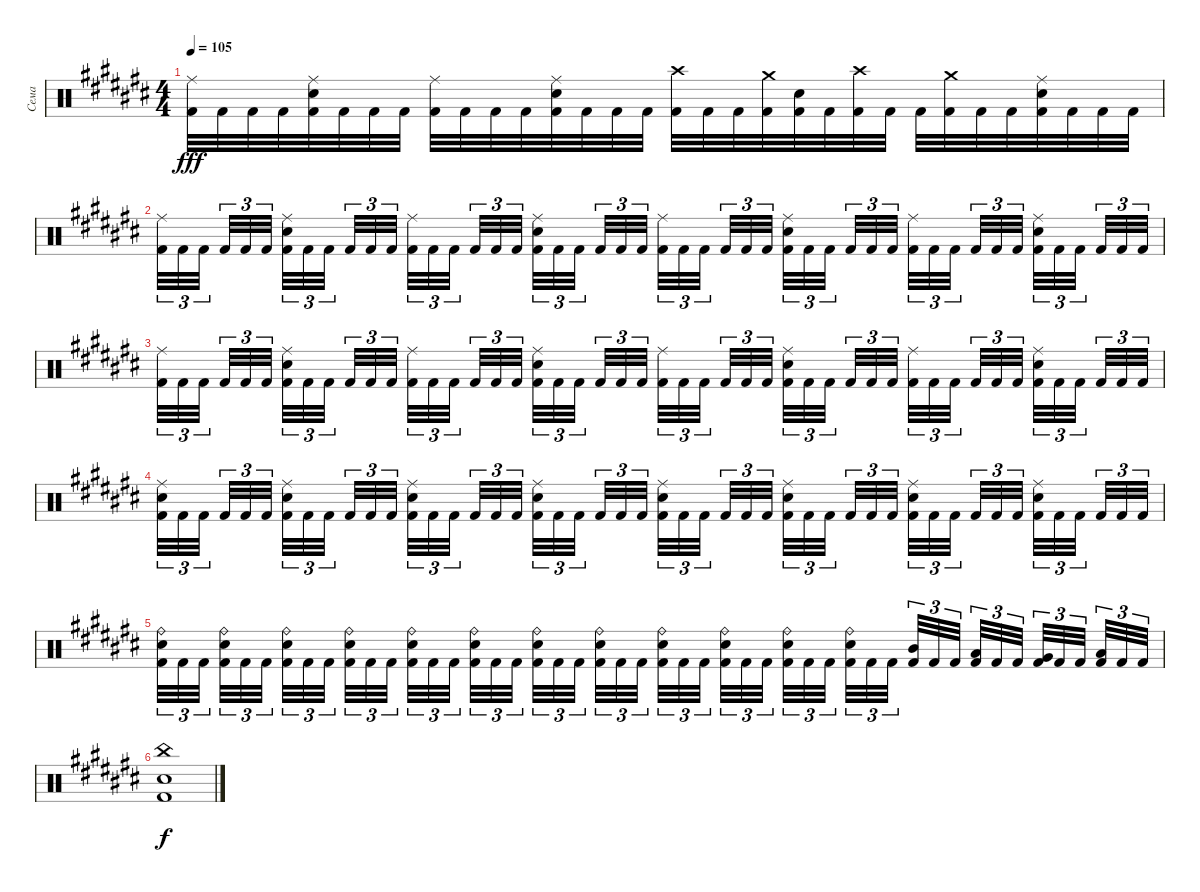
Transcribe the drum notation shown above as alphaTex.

\track ("Сема" "Сема") {instrument percussion}
\staff {score}
\articulation defaults
\ts (4 4)
\tempo 105
\clef neutral
\ks c#
("Ride (middle)" "Kick (hit) 2").32{dy fff} "Kick (hit) 2".32 "Kick (hit) 2".32 "Kick (hit) 2".32 ("Ride (middle)" "Electric Snare (hit)" "Kick (hit) 2").32 "Kick (hit) 2".32 "Kick (hit) 2".32 "Kick (hit) 2".32 ("Ride (middle)" "Kick (hit) 2").32 "Kick (hit) 2".32 "Kick (hit) 2".32 "Kick (hit) 2".32 ("Ride (middle)" "Electric Snare (hit)" "Kick (hit) 2").32 "Kick (hit) 2".32 "Kick (hit) 2".32 "Kick (hit) 2".32 ("Crash high (hit)" "Kick (hit) 2").32 "Kick (hit) 2".32 "Kick (hit) 2".32 ("Crash medium (hit)" "Kick (hit) 2").32 ("Electric Snare (hit)" "Kick (hit) 2").32 "Kick (hit) 2".32 ("Crash high (hit)" "Kick (hit) 2").32 "Kick (hit) 2".32 "Kick (hit) 2".32 ("Crash medium (hit)" "Kick (hit) 2").32 "Kick (hit) 2".32 "Kick (hit) 2".32 ("Ride (middle)" "Electric Snare (hit)" "Kick (hit) 2").32 "Kick (hit) 2".32 "Kick (hit) 2".32 "Kick (hit) 2".32 |
("Ride (middle)" "Kick (hit) 2").32{tu (3 2)} "Kick (hit) 2".32{tu (3 2)} "Kick (hit) 2".32{tu (3 2) beam splitsecondary} "Kick (hit) 2".32{tu (3 2)} "Kick (hit) 2".32{tu (3 2)} "Kick (hit) 2".32{tu (3 2) beam splitsecondary} ("Ride (middle)" "Electric Snare (hit)" "Kick (hit) 2").32{tu (3 2)} "Kick (hit) 2".32{tu (3 2)} "Kick (hit) 2".32{tu (3 2) beam splitsecondary} "Kick (hit) 2".32{tu (3 2)} "Kick (hit) 2".32{tu (3 2)} "Kick (hit) 2".32{tu (3 2)} ("Ride (middle)" "Kick (hit) 2").32{tu (3 2)} "Kick (hit) 2".32{tu (3 2)} "Kick (hit) 2".32{tu (3 2) beam splitsecondary} "Kick (hit) 2".32{tu (3 2)} "Kick (hit) 2".32{tu (3 2)} "Kick (hit) 2".32{tu (3 2) beam splitsecondary} ("Ride (middle)" "Electric Snare (hit)" "Kick (hit) 2").32{tu (3 2)} "Kick (hit) 2".32{tu (3 2)} "Kick (hit) 2".32{tu (3 2) beam splitsecondary} "Kick (hit) 2".32{tu (3 2)} "Kick (hit) 2".32{tu (3 2)} "Kick (hit) 2".32{tu (3 2)} ("Ride (middle)" "Kick (hit) 2").32{tu (3 2)} "Kick (hit) 2".32{tu (3 2)} "Kick (hit) 2".32{tu (3 2) beam splitsecondary} "Kick (hit) 2".32{tu (3 2)} "Kick (hit) 2".32{tu (3 2)} "Kick (hit) 2".32{tu (3 2) beam splitsecondary} ("Ride (middle)" "Electric Snare (hit)" "Kick (hit) 2").32{tu (3 2)} "Kick (hit) 2".32{tu (3 2)} "Kick (hit) 2".32{tu (3 2) beam splitsecondary} "Kick (hit) 2".32{tu (3 2)} "Kick (hit) 2".32{tu (3 2)} "Kick (hit) 2".32{tu (3 2)} ("Ride (middle)" "Kick (hit) 2").32{tu (3 2)} "Kick (hit) 2".32{tu (3 2)} "Kick (hit) 2".32{tu (3 2) beam splitsecondary} "Kick (hit) 2".32{tu (3 2)} "Kick (hit) 2".32{tu (3 2)} "Kick (hit) 2".32{tu (3 2) beam splitsecondary} ("Ride (middle)" "Electric Snare (hit)" "Kick (hit) 2").32{tu (3 2)} "Kick (hit) 2".32{tu (3 2)} "Kick (hit) 2".32{tu (3 2) beam splitsecondary} "Kick (hit) 2".32{tu (3 2)} "Kick (hit) 2".32{tu (3 2)} "Kick (hit) 2".32{tu (3 2)} |
("Ride (middle)" "Kick (hit) 2").32{tu (3 2)} "Kick (hit) 2".32{tu (3 2)} "Kick (hit) 2".32{tu (3 2) beam splitsecondary} "Kick (hit) 2".32{tu (3 2)} "Kick (hit) 2".32{tu (3 2)} "Kick (hit) 2".32{tu (3 2) beam splitsecondary} ("Ride (middle)" "Electric Snare (hit)" "Kick (hit) 2").32{tu (3 2)} "Kick (hit) 2".32{tu (3 2)} "Kick (hit) 2".32{tu (3 2) beam splitsecondary} "Kick (hit) 2".32{tu (3 2)} "Kick (hit) 2".32{tu (3 2)} "Kick (hit) 2".32{tu (3 2)} ("Ride (middle)" "Kick (hit) 2").32{tu (3 2)} "Kick (hit) 2".32{tu (3 2)} "Kick (hit) 2".32{tu (3 2) beam splitsecondary} "Kick (hit) 2".32{tu (3 2)} "Kick (hit) 2".32{tu (3 2)} "Kick (hit) 2".32{tu (3 2) beam splitsecondary} ("Ride (middle)" "Electric Snare (hit)" "Kick (hit) 2").32{tu (3 2)} "Kick (hit) 2".32{tu (3 2)} "Kick (hit) 2".32{tu (3 2) beam splitsecondary} "Kick (hit) 2".32{tu (3 2)} "Kick (hit) 2".32{tu (3 2)} "Kick (hit) 2".32{tu (3 2)} ("Ride (middle)" "Kick (hit) 2").32{tu (3 2)} "Kick (hit) 2".32{tu (3 2)} "Kick (hit) 2".32{tu (3 2) beam splitsecondary} "Kick (hit) 2".32{tu (3 2)} "Kick (hit) 2".32{tu (3 2)} "Kick (hit) 2".32{tu (3 2) beam splitsecondary} ("Ride (middle)" "Electric Snare (hit)" "Kick (hit) 2").32{tu (3 2)} "Kick (hit) 2".32{tu (3 2)} "Kick (hit) 2".32{tu (3 2) beam splitsecondary} "Kick (hit) 2".32{tu (3 2)} "Kick (hit) 2".32{tu (3 2)} "Kick (hit) 2".32{tu (3 2)} ("Ride (middle)" "Kick (hit) 2").32{tu (3 2)} "Kick (hit) 2".32{tu (3 2)} "Kick (hit) 2".32{tu (3 2) beam splitsecondary} "Kick (hit) 2".32{tu (3 2)} "Kick (hit) 2".32{tu (3 2)} "Kick (hit) 2".32{tu (3 2) beam splitsecondary} ("Ride (middle)" "Electric Snare (hit)" "Kick (hit) 2").32{tu (3 2)} "Kick (hit) 2".32{tu (3 2)} "Kick (hit) 2".32{tu (3 2) beam splitsecondary} "Kick (hit) 2".32{tu (3 2)} "Kick (hit) 2".32{tu (3 2)} "Kick (hit) 2".32{tu (3 2)} |
("Ride (middle)" "Electric Snare (hit)" "Kick (hit) 2").32{tu (3 2)} "Kick (hit) 2".32{tu (3 2)} "Kick (hit) 2".32{tu (3 2) beam splitsecondary} "Kick (hit) 2".32{tu (3 2)} "Kick (hit) 2".32{tu (3 2)} "Kick (hit) 2".32{tu (3 2) beam splitsecondary} ("Ride (middle)" "Electric Snare (hit)" "Kick (hit) 2").32{tu (3 2)} "Kick (hit) 2".32{tu (3 2)} "Kick (hit) 2".32{tu (3 2) beam splitsecondary} "Kick (hit) 2".32{tu (3 2)} "Kick (hit) 2".32{tu (3 2)} "Kick (hit) 2".32{tu (3 2)} ("Ride (middle)" "Electric Snare (hit)" "Kick (hit) 2").32{tu (3 2)} "Kick (hit) 2".32{tu (3 2)} "Kick (hit) 2".32{tu (3 2) beam splitsecondary} "Kick (hit) 2".32{tu (3 2)} "Kick (hit) 2".32{tu (3 2)} "Kick (hit) 2".32{tu (3 2) beam splitsecondary} ("Ride (middle)" "Electric Snare (hit)" "Kick (hit) 2").32{tu (3 2)} "Kick (hit) 2".32{tu (3 2)} "Kick (hit) 2".32{tu (3 2) beam splitsecondary} "Kick (hit) 2".32{tu (3 2)} "Kick (hit) 2".32{tu (3 2)} "Kick (hit) 2".32{tu (3 2)} ("Ride (middle)" "Electric Snare (hit)" "Kick (hit) 2").32{tu (3 2)} "Kick (hit) 2".32{tu (3 2)} "Kick (hit) 2".32{tu (3 2) beam splitsecondary} "Kick (hit) 2".32{tu (3 2)} "Kick (hit) 2".32{tu (3 2)} "Kick (hit) 2".32{tu (3 2) beam splitsecondary} ("Ride (middle)" "Electric Snare (hit)" "Kick (hit) 2").32{tu (3 2)} "Kick (hit) 2".32{tu (3 2)} "Kick (hit) 2".32{tu (3 2) beam splitsecondary} "Kick (hit) 2".32{tu (3 2)} "Kick (hit) 2".32{tu (3 2)} "Kick (hit) 2".32{tu (3 2)} ("Ride (middle)" "Electric Snare (hit)" "Kick (hit) 2").32{tu (3 2)} "Kick (hit) 2".32{tu (3 2)} "Kick (hit) 2".32{tu (3 2) beam splitsecondary} "Kick (hit) 2".32{tu (3 2)} "Kick (hit) 2".32{tu (3 2)} "Kick (hit) 2".32{tu (3 2) beam splitsecondary} ("Ride (middle)" "Electric Snare (hit)" "Kick (hit) 2").32{tu (3 2)} "Kick (hit) 2".32{tu (3 2)} "Kick (hit) 2".32{tu (3 2) beam splitsecondary} "Kick (hit) 2".32{tu (3 2)} "Kick (hit) 2".32{tu (3 2)} "Kick (hit) 2".32{tu (3 2)} |
("Ride (bell)" "Electric Snare (hit)" "Kick (hit) 2").32{tu (3 2)} "Kick (hit) 2".32{tu (3 2)} "Kick (hit) 2".32{tu (3 2) beam splitsecondary} ("Ride (bell)" "Electric Snare (hit)" "Kick (hit) 2").32{tu (3 2)} "Kick (hit) 2".32{tu (3 2)} "Kick (hit) 2".32{tu (3 2) beam splitsecondary} ("Ride (bell)" "Electric Snare (hit)" "Kick (hit) 2").32{tu (3 2)} "Kick (hit) 2".32{tu (3 2)} "Kick (hit) 2".32{tu (3 2) beam splitsecondary} ("Ride (bell)" "Electric Snare (hit)" "Kick (hit) 2").32{tu (3 2)} "Kick (hit) 2".32{tu (3 2)} "Kick (hit) 2".32{tu (3 2)} ("Ride (bell)" "Electric Snare (hit)" "Kick (hit) 2").32{tu (3 2)} "Kick (hit) 2".32{tu (3 2)} "Kick (hit) 2".32{tu (3 2) beam splitsecondary} ("Ride (bell)" "Electric Snare (hit)" "Kick (hit) 2").32{tu (3 2)} "Kick (hit) 2".32{tu (3 2)} "Kick (hit) 2".32{tu (3 2) beam splitsecondary} ("Ride (bell)" "Electric Snare (hit)" "Kick (hit) 2").32{tu (3 2)} "Kick (hit) 2".32{tu (3 2)} "Kick (hit) 2".32{tu (3 2) beam splitsecondary} ("Ride (bell)" "Electric Snare (hit)" "Kick (hit) 2").32{tu (3 2)} "Kick (hit) 2".32{tu (3 2)} "Kick (hit) 2".32{tu (3 2)} ("Ride (bell)" "Electric Snare (hit)" "Kick (hit) 2").32{tu (3 2)} "Kick (hit) 2".32{tu (3 2)} "Kick (hit) 2".32{tu (3 2) beam splitsecondary} ("Ride (bell)" "Electric Snare (hit)" "Kick (hit) 2").32{tu (3 2)} "Kick (hit) 2".32{tu (3 2)} "Kick (hit) 2".32{tu (3 2) beam splitsecondary} ("Ride (bell)" "Electric Snare (hit)" "Kick (hit) 2").32{tu (3 2)} "Kick (hit) 2".32{tu (3 2)} "Kick (hit) 2".32{tu (3 2) beam splitsecondary} ("Ride (bell)" "Electric Snare (hit)" "Kick (hit) 2").32{tu (3 2)} "Kick (hit) 2".32{tu (3 2)} "Kick (hit) 2".32{tu (3 2)} ("Mid Tom (hit)" "Kick (hit) 2").32{tu (3 2)} "Kick (hit) 2".32{tu (3 2)} "Kick (hit) 2".32{tu (3 2) beam splitsecondary} ("Low Tom (hit)" "Kick (hit) 2").32{tu (3 2)} "Kick (hit) 2".32{tu (3 2)} "Kick (hit) 2".32{tu (3 2) beam splitsecondary} ("Very Low Tom (hit)" "Kick (hit) 2").32{tu (3 2)} "Kick (hit) 2".32{tu (3 2)} "Kick (hit) 2".32{tu (3 2) beam splitsecondary} ("Low Floor Tom (hit)" "Kick (hit) 2").32{tu (3 2)} "Kick (hit) 2".32{tu (3 2)} "Kick (hit) 2".32{tu (3 2)} |
("China (hit)" "Electric Snare (hit)" "Kick (hit) 2").1{dy f}
